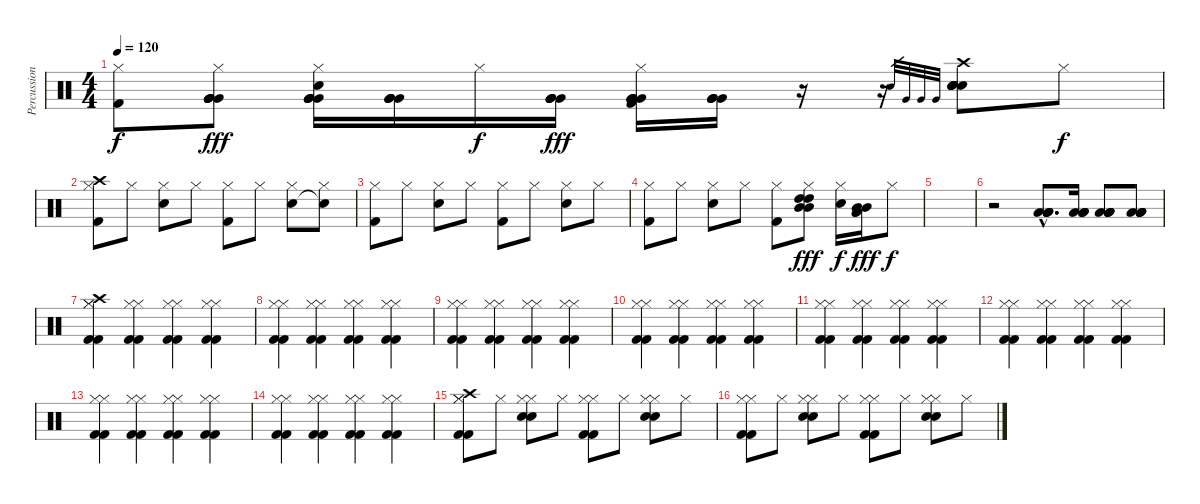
\track ("Percussion" "Percussion") {instrument percussion}
\staff {score}
\articulation defaults
\ts (4 4)
\tempo 120
\clef neutral
\ks c
("Hi-Hat (closed)" "Kick (hit) 2").8{dy f} ("Hi-Hat (closed)" "Very Low Tom (hit)" "Very Low Tom (hit)" "Very Low Tom (hit)" "Very Low Tom (hit)").8{dy fff} ("Hi-Hat (closed)" "Electric Snare (hit)" "Very Low Tom (hit)" "Very Low Tom (hit)" "Very Low Tom (hit)" "Very Low Tom (hit)").16 ("Very Low Tom (hit)" "Very Low Tom (hit)" "Very Low Tom (hit)" "Very Low Tom (hit)").16 "Hi-Hat (closed)".16{dy f} ("Very Low Tom (hit)" "Very Low Tom (hit)" "Very Low Tom (hit)" "Very Low Tom (hit)").16{dy fff} ("Hi-Hat (closed)" "Kick (hit) 2" "Very Low Tom (hit)" "Very Low Tom (hit)" "Very Low Tom (hit)" "Very Low Tom (hit)").16 ("Very Low Tom (hit)" "Very Low Tom (hit)" "Very Low Tom (hit)" "Very Low Tom (hit)").16 r.16 r.16 "Snare (hit)".32{gr} "Very Low Tom (hit)".32{gr} "Very Low Tom (hit)".32{gr} "Very Low Tom (hit)".32{gr} ("Crash high (hit)" "Electric Snare (hit)" "Electric Snare (hit)" "Electric Snare (hit)" "Electric Snare (hit)" "Electric Snare (hit)").8 "Hi-Hat (closed)".8{dy f} |
("Hi-Hat (closed)" "Kick (hit) 2" "Crash high (hit)").8 "Hi-Hat (closed)".8 ("Hi-Hat (closed)" "Electric Snare (hit)").8 "Hi-Hat (closed)".8 ("Hi-Hat (closed)" "Kick (hit) 2").8 "Hi-Hat (closed)".8 ("Hi-Hat (closed)" "Electric Snare (hit)").8 ("Hi-Hat (closed)" "Snare (hit)"{t}).8 |
("Hi-Hat (closed)" "Kick (hit) 2").8 "Hi-Hat (closed)".8 ("Hi-Hat (closed)" "Electric Snare (hit)").8 "Hi-Hat (closed)".8 ("Hi-Hat (closed)" "Kick (hit) 2").8 "Hi-Hat (closed)".8 ("Hi-Hat (closed)" "Electric Snare (hit)").8 "Hi-Hat (closed)".8 |
("Hi-Hat (closed)" "Kick (hit) 2").8 "Hi-Hat (closed)".8 ("Hi-Hat (closed)" "Electric Snare (hit)").8 "Hi-Hat (closed)".8 ("Hi-Hat (closed)" "Kick (hit) 2").8 ("Hi-Hat (closed)" "High Tom (hit)" "High Tom (hit)" "Mid Tom (hit)" "Mid Tom (hit)").8{dy fff} ("Hi-Hat (closed)" "Electric Snare (hit)").16{dy f} ("Mid Tom (hit)" "Mid Tom (hit)" "Low Tom (hit)" "Low Tom (hit)").16{dy fff} "Hi-Hat (closed)".8{dy f} |
|
r.2 ("Low Tom (hit)"{hac} "Low Floor Tom (hit)"{hac} "Low Tom (hit)"{hac} "Low Floor Tom (hit)"{hac}).8{d} ("Low Tom (hit)" "Low Floor Tom (hit)" "Low Floor Tom (hit)" "Low Floor Tom (hit)").16 ("Low Floor Tom (hit)" "Low Floor Tom (hit)" "Low Floor Tom (hit)" "Low Floor Tom (hit)").8 ("Low Floor Tom (hit)" "Low Floor Tom (hit)" "Low Floor Tom (hit)" "Low Floor Tom (hit)").8 |
("Kick (hit) 2" "Kick (hit) 2" "Hi-Hat (closed)" "Hi-Hat (closed)" "Crash high (hit)").4 ("Kick (hit) 2" "Kick (hit) 2" "Hi-Hat (closed)" "Hi-Hat (closed)").4 ("Kick (hit) 2" "Kick (hit) 2" "Hi-Hat (closed)" "Hi-Hat (closed)").4 ("Kick (hit) 2" "Kick (hit) 2" "Hi-Hat (closed)" "Hi-Hat (closed)").4 |
("Kick (hit) 2" "Kick (hit) 2" "Hi-Hat (closed)" "Hi-Hat (closed)").4 ("Kick (hit) 2" "Kick (hit) 2" "Hi-Hat (closed)" "Hi-Hat (closed)").4 ("Kick (hit) 2" "Kick (hit) 2" "Hi-Hat (closed)" "Hi-Hat (closed)").4 ("Kick (hit) 2" "Kick (hit) 2" "Hi-Hat (closed)" "Hi-Hat (closed)").4 |
("Kick (hit) 2" "Kick (hit) 2" "Hi-Hat (closed)" "Hi-Hat (closed)").4 ("Kick (hit) 2" "Kick (hit) 2" "Hi-Hat (closed)" "Hi-Hat (closed)").4 ("Kick (hit) 2" "Kick (hit) 2" "Hi-Hat (closed)" "Hi-Hat (closed)").4 ("Kick (hit) 2" "Kick (hit) 2" "Hi-Hat (closed)" "Hi-Hat (closed)").4 |
("Kick (hit) 2" "Kick (hit) 2" "Hi-Hat (closed)" "Hi-Hat (closed)").4 ("Kick (hit) 2" "Kick (hit) 2" "Hi-Hat (closed)" "Hi-Hat (closed)").4 ("Kick (hit) 2" "Kick (hit) 2" "Hi-Hat (closed)" "Hi-Hat (closed)").4 ("Kick (hit) 2" "Kick (hit) 2" "Hi-Hat (closed)" "Hi-Hat (closed)").4 |
("Kick (hit) 2" "Kick (hit) 2" "Hi-Hat (closed)" "Hi-Hat (closed)").4 ("Kick (hit) 2" "Kick (hit) 2" "Hi-Hat (closed)" "Hi-Hat (closed)").4 ("Kick (hit) 2" "Kick (hit) 2" "Hi-Hat (closed)" "Hi-Hat (closed)").4 ("Kick (hit) 2" "Kick (hit) 2" "Hi-Hat (closed)" "Hi-Hat (closed)").4 |
("Kick (hit) 2" "Kick (hit) 2" "Hi-Hat (closed)" "Hi-Hat (closed)").4 ("Kick (hit) 2" "Kick (hit) 2" "Hi-Hat (closed)" "Hi-Hat (closed)").4 ("Kick (hit) 2" "Kick (hit) 2" "Hi-Hat (closed)" "Hi-Hat (closed)").4 ("Kick (hit) 2" "Kick (hit) 2" "Hi-Hat (closed)" "Hi-Hat (closed)").4 |
("Kick (hit) 2" "Kick (hit) 2" "Hi-Hat (closed)" "Hi-Hat (closed)").4 ("Kick (hit) 2" "Kick (hit) 2" "Hi-Hat (closed)" "Hi-Hat (closed)").4 ("Kick (hit) 2" "Kick (hit) 2" "Hi-Hat (closed)" "Hi-Hat (closed)").4 ("Kick (hit) 2" "Kick (hit) 2" "Hi-Hat (closed)" "Hi-Hat (closed)").4 |
("Kick (hit) 2" "Kick (hit) 2" "Hi-Hat (closed)" "Hi-Hat (closed)").4 ("Kick (hit) 2" "Kick (hit) 2" "Hi-Hat (closed)" "Hi-Hat (closed)").4 ("Kick (hit) 2" "Kick (hit) 2" "Hi-Hat (closed)" "Hi-Hat (closed)").4 ("Kick (hit) 2" "Kick (hit) 2" "Hi-Hat (closed)" "Hi-Hat (closed)").4 |
("Kick (hit) 2" "Kick (hit) 2" "Hi-Hat (closed)" "Hi-Hat (closed)" "Crash high (hit)").8 "Hi-Hat (closed)".8 ("Electric Snare (hit)" "Electric Snare (hit)" "Hi-Hat (closed)" "Hi-Hat (closed)").8 "Hi-Hat (closed)".8 ("Kick (hit) 2" "Kick (hit) 2" "Hi-Hat (closed)" "Hi-Hat (closed)").8 "Hi-Hat (closed)".8 ("Electric Snare (hit)" "Electric Snare (hit)" "Hi-Hat (closed)" "Hi-Hat (closed)").8 "Hi-Hat (closed)".8 |
("Kick (hit) 2" "Kick (hit) 2" "Hi-Hat (closed)" "Hi-Hat (closed)").8 "Hi-Hat (closed)".8 ("Electric Snare (hit)" "Electric Snare (hit)" "Hi-Hat (closed)" "Hi-Hat (closed)").8 "Hi-Hat (closed)".8 ("Kick (hit) 2" "Kick (hit) 2" "Hi-Hat (closed)" "Hi-Hat (closed)").8 "Hi-Hat (closed)".8 ("Electric Snare (hit)" "Electric Snare (hit)" "Hi-Hat (closed)" "Hi-Hat (closed)").8 "Hi-Hat (closed)".8
